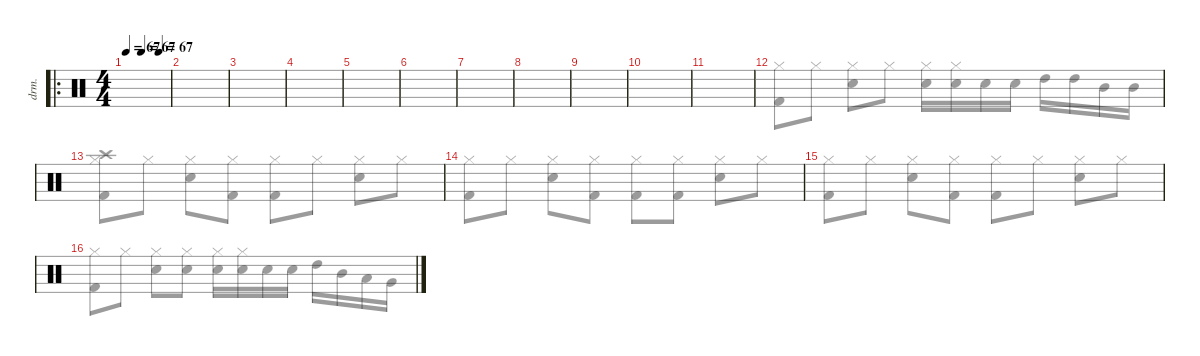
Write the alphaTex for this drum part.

\defaultSystemsLayout 4
\hideDynamics
\bracketExtendMode nobrackets
\otherSystemsTrackNameOrientation horizontal
\track ("Drumkit" "drm.") {instrument percussion}
\staff
\articulation defaults
\voice
\ro
\ts (4 4)
\tempo 67
\tempo (67 0.35)
\tempo (67 0.75)
\clef neutral
\ks c
|
|
|
|
|
|
|
|
|
|
|
|
|
|
|
\voice
\clef neutral
\ks c
|
|
|
|
|
|
|
|
|
|
|
("Hi-Hat (closed)" "Kick (hit) 2").8 "Hi-Hat (closed)".8 ("Hi-Hat (closed)" "Electric Snare (hit)").8 "Hi-Hat (closed)".8 ("Hi-Hat (closed)" "Electric Snare (hit)").16 ("Electric Snare (hit)" "Hi-Hat (closed)").16 "Electric Snare (hit)".16 "Electric Snare (hit)".16 "High Tom (hit)".16 "High Tom (hit)".16 "Mid Tom (hit)".16 "Mid Tom (hit)".16 |
("Hi-Hat (closed)" "Crash high (hit)" "Kick (hit) 2").8 "Hi-Hat (closed)".8 ("Hi-Hat (closed)" "Electric Snare (hit)").8 ("Hi-Hat (closed)" "Kick (hit) 2").8 ("Hi-Hat (closed)" "Kick (hit) 2").8 "Hi-Hat (closed)".8 ("Hi-Hat (closed)" "Electric Snare (hit)").8 "Hi-Hat (closed)".8 |
("Hi-Hat (closed)" "Kick (hit) 2").8 "Hi-Hat (closed)".8 ("Hi-Hat (closed)" "Electric Snare (hit)").8 ("Hi-Hat (closed)" "Kick (hit) 2").8 ("Hi-Hat (closed)" "Kick (hit) 2").8 ("Hi-Hat (closed)" "Kick (hit) 2").8 ("Hi-Hat (closed)" "Electric Snare (hit)").8 "Hi-Hat (closed)".8 |
("Hi-Hat (closed)" "Kick (hit) 2").8 "Hi-Hat (closed)".8 ("Hi-Hat (closed)" "Electric Snare (hit)").8 ("Hi-Hat (closed)" "Kick (hit) 2").8 ("Hi-Hat (closed)" "Kick (hit) 2").8 "Hi-Hat (closed)".8 ("Hi-Hat (closed)" "Electric Snare (hit)").8 "Hi-Hat (closed)".8 |
("Hi-Hat (closed)" "Kick (hit) 2").8 "Hi-Hat (closed)".8 ("Hi-Hat (closed)" "Electric Snare (hit)").8 ("Hi-Hat (closed)" "Electric Snare (hit)").8 ("Hi-Hat (closed)" "Electric Snare (hit)").16 ("Hi-Hat (closed)" "Electric Snare (hit)").16 "Electric Snare (hit)".16 "Electric Snare (hit)".16 "High Tom (hit)".16 "Mid Tom (hit)".16 "Low Tom (hit)".16 "Very Low Tom (hit)".16
